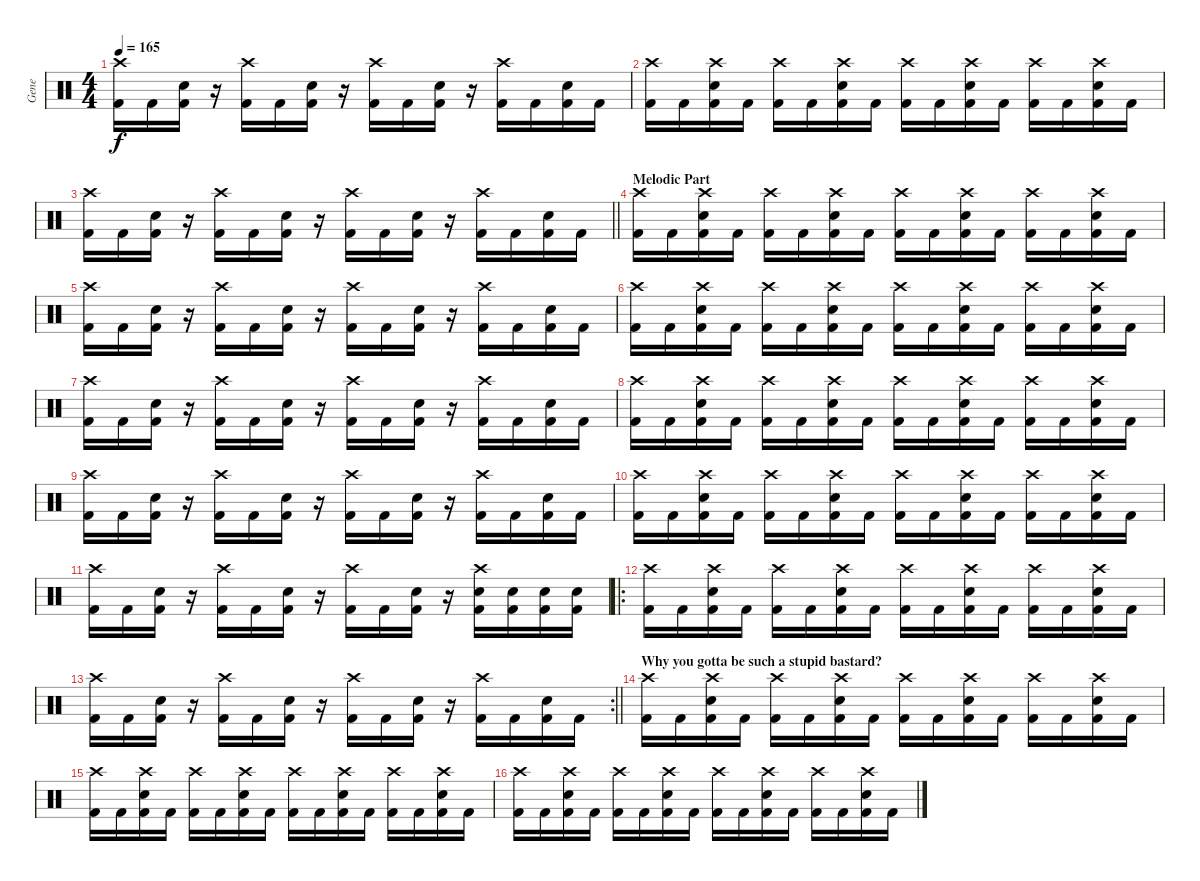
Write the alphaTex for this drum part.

\track ("Gene" "Gene") {instrument percussion}
\staff {score}
\articulation defaults
\ts (4 4)
\tempo 165
\clef neutral
\ks c
("Crash high (hit)" "Kick (hit) 2").16{dy f} "Kick (hit) 2".16 ("Electric Snare (hit)" "Kick (hit) 2").16 r.16 ("Crash high (hit)" "Kick (hit) 2").16 "Kick (hit) 2".16 ("Electric Snare (hit)" "Kick (hit) 2").16 r.16 ("Crash high (hit)" "Kick (hit) 2").16 "Kick (hit) 2".16 ("Electric Snare (hit)" "Kick (hit) 2").16 r.16 ("Crash high (hit)" "Kick (hit) 2").16 "Kick (hit) 2".16 ("Electric Snare (hit)" "Kick (hit) 2").16 "Kick (hit) 2".16 |
("Crash high (hit)" "Kick (hit) 2").16 "Kick (hit) 2".16 ("Crash high (hit)" "Electric Snare (hit)" "Kick (hit) 2").16 "Kick (hit) 2".16 ("Crash high (hit)" "Kick (hit) 2").16 "Kick (hit) 2".16 ("Crash high (hit)" "Electric Snare (hit)" "Kick (hit) 2").16 "Kick (hit) 2".16 ("Crash high (hit)" "Kick (hit) 2").16 "Kick (hit) 2".16 ("Crash high (hit)" "Electric Snare (hit)" "Kick (hit) 2").16 "Kick (hit) 2".16 ("Crash high (hit)" "Kick (hit) 2").16 "Kick (hit) 2".16 ("Crash high (hit)" "Electric Snare (hit)" "Kick (hit) 2").16 "Kick (hit) 2".16 |
\barLineRight lightlight
("Crash high (hit)" "Kick (hit) 2").16 "Kick (hit) 2".16 ("Electric Snare (hit)" "Kick (hit) 2").16 r.16 ("Crash high (hit)" "Kick (hit) 2").16 "Kick (hit) 2".16 ("Electric Snare (hit)" "Kick (hit) 2").16 r.16 ("Crash high (hit)" "Kick (hit) 2").16 "Kick (hit) 2".16 ("Electric Snare (hit)" "Kick (hit) 2").16 r.16 ("Crash high (hit)" "Kick (hit) 2").16 "Kick (hit) 2".16 ("Electric Snare (hit)" "Kick (hit) 2").16 "Kick (hit) 2".16 |
\section ("" "Melodic Part")
("Crash high (hit)" "Kick (hit) 2").16 "Kick (hit) 2".16 ("Crash high (hit)" "Electric Snare (hit)" "Kick (hit) 2").16 "Kick (hit) 2".16 ("Crash high (hit)" "Kick (hit) 2").16 "Kick (hit) 2".16 ("Crash high (hit)" "Electric Snare (hit)" "Kick (hit) 2").16 "Kick (hit) 2".16 ("Crash high (hit)" "Kick (hit) 2").16 "Kick (hit) 2".16 ("Crash high (hit)" "Electric Snare (hit)" "Kick (hit) 2").16 "Kick (hit) 2".16 ("Crash high (hit)" "Kick (hit) 2").16 "Kick (hit) 2".16 ("Crash high (hit)" "Electric Snare (hit)" "Kick (hit) 2").16 "Kick (hit) 2".16 |
("Crash high (hit)" "Kick (hit) 2").16 "Kick (hit) 2".16 ("Electric Snare (hit)" "Kick (hit) 2").16 r.16 ("Crash high (hit)" "Kick (hit) 2").16 "Kick (hit) 2".16 ("Electric Snare (hit)" "Kick (hit) 2").16 r.16 ("Crash high (hit)" "Kick (hit) 2").16 "Kick (hit) 2".16 ("Electric Snare (hit)" "Kick (hit) 2").16 r.16 ("Crash high (hit)" "Kick (hit) 2").16 "Kick (hit) 2".16 ("Electric Snare (hit)" "Kick (hit) 2").16 "Kick (hit) 2".16 |
("Crash high (hit)" "Kick (hit) 2").16 "Kick (hit) 2".16 ("Crash high (hit)" "Electric Snare (hit)" "Kick (hit) 2").16 "Kick (hit) 2".16 ("Crash high (hit)" "Kick (hit) 2").16 "Kick (hit) 2".16 ("Crash high (hit)" "Electric Snare (hit)" "Kick (hit) 2").16 "Kick (hit) 2".16 ("Crash high (hit)" "Kick (hit) 2").16 "Kick (hit) 2".16 ("Crash high (hit)" "Electric Snare (hit)" "Kick (hit) 2").16 "Kick (hit) 2".16 ("Crash high (hit)" "Kick (hit) 2").16 "Kick (hit) 2".16 ("Crash high (hit)" "Electric Snare (hit)" "Kick (hit) 2").16 "Kick (hit) 2".16 |
("Crash high (hit)" "Kick (hit) 2").16 "Kick (hit) 2".16 ("Electric Snare (hit)" "Kick (hit) 2").16 r.16 ("Crash high (hit)" "Kick (hit) 2").16 "Kick (hit) 2".16 ("Electric Snare (hit)" "Kick (hit) 2").16 r.16 ("Crash high (hit)" "Kick (hit) 2").16 "Kick (hit) 2".16 ("Electric Snare (hit)" "Kick (hit) 2").16 r.16 ("Crash high (hit)" "Kick (hit) 2").16 "Kick (hit) 2".16 ("Electric Snare (hit)" "Kick (hit) 2").16 "Kick (hit) 2".16 |
("Crash high (hit)" "Kick (hit) 2").16 "Kick (hit) 2".16 ("Crash high (hit)" "Electric Snare (hit)" "Kick (hit) 2").16 "Kick (hit) 2".16 ("Crash high (hit)" "Kick (hit) 2").16 "Kick (hit) 2".16 ("Crash high (hit)" "Electric Snare (hit)" "Kick (hit) 2").16 "Kick (hit) 2".16 ("Crash high (hit)" "Kick (hit) 2").16 "Kick (hit) 2".16 ("Crash high (hit)" "Electric Snare (hit)" "Kick (hit) 2").16 "Kick (hit) 2".16 ("Crash high (hit)" "Kick (hit) 2").16 "Kick (hit) 2".16 ("Crash high (hit)" "Electric Snare (hit)" "Kick (hit) 2").16 "Kick (hit) 2".16 |
("Crash high (hit)" "Kick (hit) 2").16 "Kick (hit) 2".16 ("Electric Snare (hit)" "Kick (hit) 2").16 r.16 ("Crash high (hit)" "Kick (hit) 2").16 "Kick (hit) 2".16 ("Electric Snare (hit)" "Kick (hit) 2").16 r.16 ("Crash high (hit)" "Kick (hit) 2").16 "Kick (hit) 2".16 ("Electric Snare (hit)" "Kick (hit) 2").16 r.16 ("Crash high (hit)" "Kick (hit) 2").16 "Kick (hit) 2".16 ("Electric Snare (hit)" "Kick (hit) 2").16 "Kick (hit) 2".16 |
("Crash high (hit)" "Kick (hit) 2").16 "Kick (hit) 2".16 ("Crash high (hit)" "Electric Snare (hit)" "Kick (hit) 2").16 "Kick (hit) 2".16 ("Crash high (hit)" "Kick (hit) 2").16 "Kick (hit) 2".16 ("Crash high (hit)" "Electric Snare (hit)" "Kick (hit) 2").16 "Kick (hit) 2".16 ("Crash high (hit)" "Kick (hit) 2").16 "Kick (hit) 2".16 ("Crash high (hit)" "Electric Snare (hit)" "Kick (hit) 2").16 "Kick (hit) 2".16 ("Crash high (hit)" "Kick (hit) 2").16 "Kick (hit) 2".16 ("Crash high (hit)" "Electric Snare (hit)" "Kick (hit) 2").16 "Kick (hit) 2".16 |
("Crash high (hit)" "Kick (hit) 2").16 "Kick (hit) 2".16 ("Electric Snare (hit)" "Kick (hit) 2").16 r.16 ("Crash high (hit)" "Kick (hit) 2").16 "Kick (hit) 2".16 ("Electric Snare (hit)" "Kick (hit) 2").16 r.16 ("Crash high (hit)" "Kick (hit) 2").16 "Kick (hit) 2".16 ("Electric Snare (hit)" "Kick (hit) 2").16 r.16 ("Crash high (hit)" "Electric Snare (hit)" "Kick (hit) 2").16 ("Electric Snare (hit)" "Kick (hit) 2").16 ("Electric Snare (hit)" "Kick (hit) 2").16 ("Electric Snare (hit)" "Kick (hit) 2").16 |
\ro
("Crash high (hit)" "Kick (hit) 2").16 "Kick (hit) 2".16 ("Crash high (hit)" "Electric Snare (hit)" "Kick (hit) 2").16 "Kick (hit) 2".16 ("Crash high (hit)" "Kick (hit) 2").16 "Kick (hit) 2".16 ("Crash high (hit)" "Electric Snare (hit)" "Kick (hit) 2").16 "Kick (hit) 2".16 ("Crash high (hit)" "Kick (hit) 2").16 "Kick (hit) 2".16 ("Crash high (hit)" "Electric Snare (hit)" "Kick (hit) 2").16 "Kick (hit) 2".16 ("Crash high (hit)" "Kick (hit) 2").16 "Kick (hit) 2".16 ("Crash high (hit)" "Electric Snare (hit)" "Kick (hit) 2").16 "Kick (hit) 2".16 |
\rc 2
\barLineRight lightlight
("Crash high (hit)" "Kick (hit) 2").16 "Kick (hit) 2".16 ("Electric Snare (hit)" "Kick (hit) 2").16 r.16 ("Crash high (hit)" "Kick (hit) 2").16 "Kick (hit) 2".16 ("Electric Snare (hit)" "Kick (hit) 2").16 r.16 ("Crash high (hit)" "Kick (hit) 2").16 "Kick (hit) 2".16 ("Electric Snare (hit)" "Kick (hit) 2").16 r.16 ("Crash high (hit)" "Kick (hit) 2").16 "Kick (hit) 2".16 ("Electric Snare (hit)" "Kick (hit) 2").16 "Kick (hit) 2".16 |
\section ("" "Why you gotta be such a stupid bastard?")
("Crash high (hit)" "Kick (hit) 2").16 "Kick (hit) 2".16 ("Crash high (hit)" "Electric Snare (hit)" "Kick (hit) 2").16 "Kick (hit) 2".16 ("Crash high (hit)" "Kick (hit) 2").16 "Kick (hit) 2".16 ("Crash high (hit)" "Electric Snare (hit)" "Kick (hit) 2").16 "Kick (hit) 2".16 ("Crash high (hit)" "Kick (hit) 2").16 "Kick (hit) 2".16 ("Crash high (hit)" "Electric Snare (hit)" "Kick (hit) 2").16 "Kick (hit) 2".16 ("Crash high (hit)" "Kick (hit) 2").16 "Kick (hit) 2".16 ("Crash high (hit)" "Electric Snare (hit)" "Kick (hit) 2").16 "Kick (hit) 2".16 |
("Crash high (hit)" "Kick (hit) 2").16 "Kick (hit) 2".16 ("Crash high (hit)" "Electric Snare (hit)" "Kick (hit) 2").16 "Kick (hit) 2".16 ("Crash high (hit)" "Kick (hit) 2").16 "Kick (hit) 2".16 ("Crash high (hit)" "Electric Snare (hit)" "Kick (hit) 2").16 "Kick (hit) 2".16 ("Crash high (hit)" "Kick (hit) 2").16 "Kick (hit) 2".16 ("Crash high (hit)" "Electric Snare (hit)" "Kick (hit) 2").16 "Kick (hit) 2".16 ("Crash high (hit)" "Kick (hit) 2").16 "Kick (hit) 2".16 ("Crash high (hit)" "Electric Snare (hit)" "Kick (hit) 2").16 "Kick (hit) 2".16 |
("Crash high (hit)" "Kick (hit) 2").16 "Kick (hit) 2".16 ("Crash high (hit)" "Electric Snare (hit)" "Kick (hit) 2").16 "Kick (hit) 2".16 ("Crash high (hit)" "Kick (hit) 2").16 "Kick (hit) 2".16 ("Crash high (hit)" "Electric Snare (hit)" "Kick (hit) 2").16 "Kick (hit) 2".16 ("Crash high (hit)" "Kick (hit) 2").16 "Kick (hit) 2".16 ("Crash high (hit)" "Electric Snare (hit)" "Kick (hit) 2").16 "Kick (hit) 2".16 ("Crash high (hit)" "Kick (hit) 2").16 "Kick (hit) 2".16 ("Crash high (hit)" "Electric Snare (hit)" "Kick (hit) 2").16 "Kick (hit) 2".16
